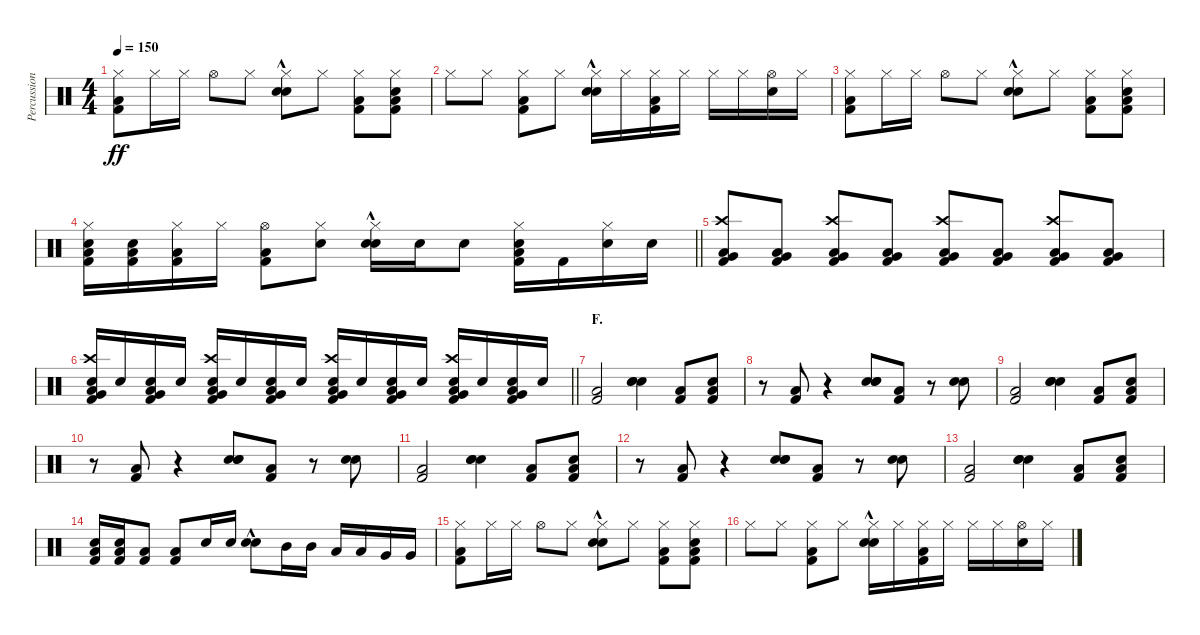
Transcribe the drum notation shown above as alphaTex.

\track ("Percussion" "Percussion") {instrument percussion}
\staff {score}
\articulation defaults
\ts (4 4)
\tempo 150
\clef neutral
\ks c
("Hi-Hat (closed)" "Low Floor Tom (hit)" "Kick (hit) 2").8{dy ff} "Hi-Hat (closed)".16 "Hi-Hat (closed)".16 "Hi-Hat (open)".8 "Hi-Hat (closed)".8 ("Hand Clap (hit)"{hac} "Hi-Hat (closed)" "Electric Snare (hit)").8 "Hi-Hat (closed)".8 ("Hi-Hat (closed)" "Low Floor Tom (hit)" "Kick (hit) 2").8 ("Hi-Hat (closed)" "Electric Snare (hit)" "Low Floor Tom (hit)" "Kick (hit) 2").8 |
"Hi-Hat (closed)".8 "Hi-Hat (closed)".8 ("Hi-Hat (closed)" "Low Floor Tom (hit)" "Kick (hit) 2").8 "Hi-Hat (closed)".8 ("Hand Clap (hit)"{hac} "Hi-Hat (closed)" "Electric Snare (hit)").16 "Hi-Hat (closed)".16 ("Hi-Hat (closed)" "Low Floor Tom (hit)" "Kick (hit) 2").16 "Hi-Hat (closed)".16 "Hi-Hat (closed)".16 "Hi-Hat (closed)".16 ("Hi-Hat (open)" "Electric Snare (hit)").16 "Hi-Hat (closed)".16 |
("Hi-Hat (closed)" "Low Floor Tom (hit)" "Kick (hit) 2").8 "Hi-Hat (closed)".16 "Hi-Hat (closed)".16 "Hi-Hat (open)".8 "Hi-Hat (closed)".8 ("Hand Clap (hit)"{hac} "Hi-Hat (closed)" "Electric Snare (hit)").8 "Hi-Hat (closed)".8 ("Hi-Hat (closed)" "Low Floor Tom (hit)" "Kick (hit) 2").8 ("Hi-Hat (closed)" "Electric Snare (hit)" "Low Floor Tom (hit)" "Kick (hit) 2").8 |
\barLineRight lightlight
("Hi-Hat (closed)" "Electric Snare (hit)" "Low Floor Tom (hit)" "Kick (hit) 2").16 ("Electric Snare (hit)" "Low Floor Tom (hit)" "Kick (hit) 2").16 ("Hi-Hat (closed)" "Low Floor Tom (hit)" "Kick (hit) 2").16 "Hi-Hat (closed)".16 ("Hi-Hat (open)" "Low Floor Tom (hit)" "Kick (hit) 2").8 ("Hi-Hat (closed)" "Electric Snare (hit)").8 ("Hand Clap (hit)"{hac} "Hi-Hat (closed)" "Electric Snare (hit)").16 "Electric Snare (hit)".16 "Electric Snare (hit)".8 ("Hi-Hat (closed)" "Electric Snare (hit)" "Low Floor Tom (hit)" "Kick (hit) 2").16 "Kick (hit) 2".16 ("Hi-Hat (closed)" "Electric Snare (hit)").16 "Electric Snare (hit)".16 |
\section ("" "")
("Crash high (hit)" "Very Low Tom (hit)" "Low Floor Tom (hit)" "Kick (hit) 2").8 ("Very Low Tom (hit)" "Low Floor Tom (hit)" "Kick (hit) 2").8 ("Crash high (hit)" "Very Low Tom (hit)" "Low Floor Tom (hit)" "Kick (hit) 2").8 ("Very Low Tom (hit)" "Low Floor Tom (hit)" "Kick (hit) 2").8 ("Crash high (hit)" "Very Low Tom (hit)" "Low Floor Tom (hit)" "Kick (hit) 2").8 ("Very Low Tom (hit)" "Low Floor Tom (hit)" "Kick (hit) 2").8 ("Crash high (hit)" "Very Low Tom (hit)" "Low Floor Tom (hit)" "Kick (hit) 2").8 ("Very Low Tom (hit)" "Low Floor Tom (hit)" "Kick (hit) 2").8 |
\barLineRight lightlight
("Crash high (hit)" "Very Low Tom (hit)" "Electric Snare (hit)" "Low Floor Tom (hit)" "Kick (hit) 2").16 "Electric Snare (hit)".16 ("Very Low Tom (hit)" "Electric Snare (hit)" "Low Floor Tom (hit)" "Kick (hit) 2").16 "Electric Snare (hit)".16 ("Crash high (hit)" "Very Low Tom (hit)" "Electric Snare (hit)" "Low Floor Tom (hit)" "Kick (hit) 2").16 "Electric Snare (hit)".16 ("Very Low Tom (hit)" "Electric Snare (hit)" "Low Floor Tom (hit)" "Kick (hit) 2").16 "Electric Snare (hit)".16 ("Crash high (hit)" "Very Low Tom (hit)" "Electric Snare (hit)" "Low Floor Tom (hit)" "Kick (hit) 2").16 "Electric Snare (hit)".16 ("Very Low Tom (hit)" "Electric Snare (hit)" "Low Floor Tom (hit)" "Kick (hit) 2").16 "Electric Snare (hit)".16 ("Crash high (hit)" "Very Low Tom (hit)" "Electric Snare (hit)" "Low Floor Tom (hit)" "Kick (hit) 2").16 "Electric Snare (hit)".16 ("Very Low Tom (hit)" "Electric Snare (hit)" "Low Floor Tom (hit)" "Kick (hit) 2").16 "Electric Snare (hit)".16 |
\section ("" "F.")
("Low Floor Tom (hit)" "Kick (hit) 2").2 ("Hand Clap (hit)" "Electric Snare (hit)" "Snare (hit) 2").4 ("Low Floor Tom (hit)" "Kick (hit) 2").8 ("Electric Snare (hit)" "Low Floor Tom (hit)" "Kick (hit) 2").8 |
r.8 ("Low Floor Tom (hit)" "Kick (hit) 2").8 r.4 ("Hand Clap (hit)" "Electric Snare (hit)" "Snare (hit) 2").8 ("Low Floor Tom (hit)" "Kick (hit) 2").8 r.8 ("Electric Snare (hit)" "Electric Snare (hit)").8{bu 60} |
("Low Floor Tom (hit)" "Kick (hit) 2").2 ("Hand Clap (hit)" "Electric Snare (hit)" "Snare (hit) 2").4 ("Low Floor Tom (hit)" "Kick (hit) 2").8 ("Electric Snare (hit)" "Low Floor Tom (hit)" "Kick (hit) 2").8 |
r.8 ("Low Floor Tom (hit)" "Kick (hit) 2").8 r.4 ("Hand Clap (hit)" "Electric Snare (hit)" "Snare (hit) 2").8 ("Low Floor Tom (hit)" "Kick (hit) 2").8 r.8 ("Electric Snare (hit)" "Electric Snare (hit)").8{bu 60} |
("Low Floor Tom (hit)" "Kick (hit) 2").2 ("Hand Clap (hit)" "Electric Snare (hit)" "Snare (hit) 2").4 ("Low Floor Tom (hit)" "Kick (hit) 2").8 ("Electric Snare (hit)" "Low Floor Tom (hit)" "Kick (hit) 2").8 |
r.8 ("Low Floor Tom (hit)" "Kick (hit) 2").8 r.4 ("Hand Clap (hit)" "Electric Snare (hit)" "Snare (hit) 2").8 ("Low Floor Tom (hit)" "Kick (hit) 2").8 r.8 ("Electric Snare (hit)" "Electric Snare (hit)").8{bu 60} |
("Low Floor Tom (hit)" "Kick (hit) 2").2 ("Hand Clap (hit)" "Electric Snare (hit)" "Snare (hit) 2").4 ("Low Floor Tom (hit)" "Kick (hit) 2").8 ("Electric Snare (hit)" "Low Floor Tom (hit)" "Kick (hit) 2").8 |
("Electric Snare (hit)" "Low Floor Tom (hit)" "Kick (hit) 2").16 ("Electric Snare (hit)" "Low Floor Tom (hit)" "Kick (hit) 2").16 ("Low Floor Tom (hit)" "Kick (hit) 2").8 ("Low Floor Tom (hit)" "Kick (hit) 2").8 "Electric Snare (hit)".16 "Electric Snare (hit)".16 ("Hand Clap (hit)"{hac} "Electric Snare (hit)").8 "Mid Tom (hit)".16 "Mid Tom (hit)".16 "Low Tom (hit)".16 "Low Tom (hit)".16 "Very Low Tom (hit)".16 "Very Low Tom (hit)".16 |
("Hi-Hat (closed)" "Low Floor Tom (hit)" "Kick (hit) 2").8 "Hi-Hat (closed)".16 "Hi-Hat (closed)".16 "Hi-Hat (open)".8 "Hi-Hat (closed)".8 ("Hand Clap (hit)"{hac} "Hi-Hat (closed)" "Electric Snare (hit)").8 "Hi-Hat (closed)".8 ("Hi-Hat (closed)" "Low Floor Tom (hit)" "Kick (hit) 2").8 ("Hi-Hat (closed)" "Electric Snare (hit)" "Low Floor Tom (hit)" "Kick (hit) 2").8 |
"Hi-Hat (closed)".8 "Hi-Hat (closed)".8 ("Hi-Hat (closed)" "Low Floor Tom (hit)" "Kick (hit) 2").8 "Hi-Hat (closed)".8 ("Hand Clap (hit)"{hac} "Hi-Hat (closed)" "Electric Snare (hit)").16 "Hi-Hat (closed)".16 ("Hi-Hat (closed)" "Low Floor Tom (hit)" "Kick (hit) 2").16 "Hi-Hat (closed)".16 "Hi-Hat (closed)".16 "Hi-Hat (closed)".16 ("Hi-Hat (open)" "Electric Snare (hit)").16 "Hi-Hat (closed)".16
